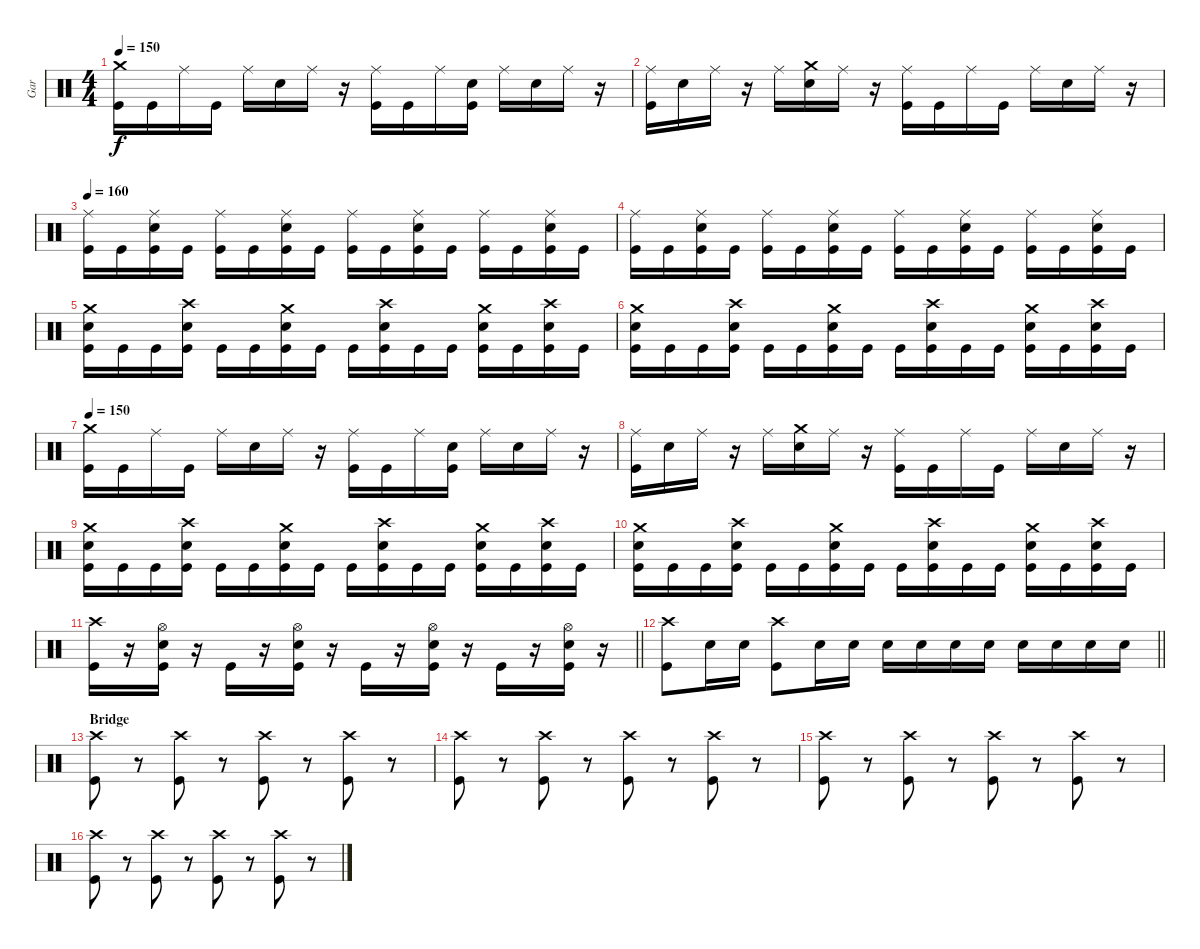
\track ("Gar" "Gar") {instrument percussion}
\staff {score}
\articulation defaults
\ts (4 4)
\tempo 150
\clef neutral
\ks c
("Crash medium (hit)" "Kick (hit)").16{dy f} "Kick (hit)".16 "Ride (middle)".16 "Kick (hit)".16 "Ride (middle)".16 "Snare (hit) 2".16 "Ride (middle)".16 r.16 ("Ride (middle)" "Kick (hit)").16 "Kick (hit)".16 "Ride (middle)".16 ("Snare (hit) 2" "Kick (hit)").16 "Ride (middle)".16 "Snare (hit) 2".16 "Ride (middle)".16 r.16 |
("Ride (middle)" "Kick (hit)").16 "Snare (hit) 2".16 "Ride (middle)".16 r.16 "Ride (middle)".16 ("Crash medium (hit)" "Snare (hit) 2").16 "Ride (middle)".16 r.16 ("Ride (middle)" "Kick (hit)").16 "Kick (hit)".16 "Ride (middle)".16 "Kick (hit)".16 "Ride (middle)".16 "Snare (hit) 2".16 "Ride (middle)".16 r.16 |
\tempo 160
("Ride (middle)" "Kick (hit)").16 "Kick (hit)".16 ("Ride (middle)" "Snare (hit) 2" "Kick (hit)").16 "Kick (hit)".16 ("Ride (middle)" "Kick (hit)").16 "Kick (hit)".16 ("Ride (middle)" "Snare (hit) 2" "Kick (hit)").16 "Kick (hit)".16 ("Ride (middle)" "Kick (hit)").16 "Kick (hit)".16 ("Ride (middle)" "Snare (hit) 2" "Kick (hit)").16 "Kick (hit)".16 ("Ride (middle)" "Kick (hit)").16 "Kick (hit)".16 ("Ride (middle)" "Snare (hit) 2" "Kick (hit)").16 "Kick (hit)".16 |
("Ride (middle)" "Kick (hit)").16 "Kick (hit)".16 ("Ride (middle)" "Snare (hit) 2" "Kick (hit)").16 "Kick (hit)".16 ("Ride (middle)" "Kick (hit)").16 "Kick (hit)".16 ("Ride (middle)" "Snare (hit) 2" "Kick (hit)").16 "Kick (hit)".16 ("Ride (middle)" "Kick (hit)").16 "Kick (hit)".16 ("Ride (middle)" "Snare (hit) 2" "Kick (hit)").16 "Kick (hit)".16 ("Ride (middle)" "Kick (hit)").16 "Kick (hit)".16 ("Ride (middle)" "Snare (hit) 2" "Kick (hit)").16 "Kick (hit)".16 |
("Crash medium (hit)" "Snare (hit) 2" "Kick (hit)").16 "Kick (hit)".16 "Kick (hit)".16 ("Crash high (hit)" "Snare (hit) 2" "Kick (hit)").16 "Kick (hit)".16 "Kick (hit)".16 ("Crash medium (hit)" "Snare (hit) 2" "Kick (hit)").16 "Kick (hit)".16 "Kick (hit)".16 ("Crash high (hit)" "Snare (hit) 2" "Kick (hit)").16 "Kick (hit)".16 "Kick (hit)".16 ("Crash medium (hit)" "Snare (hit) 2" "Kick (hit)").16 "Kick (hit)".16 ("Crash high (hit)" "Snare (hit) 2" "Kick (hit)").16 "Kick (hit)".16 |
("Crash medium (hit)" "Snare (hit) 2" "Kick (hit)").16 "Kick (hit)".16 "Kick (hit)".16 ("Crash high (hit)" "Snare (hit) 2" "Kick (hit)").16 "Kick (hit)".16 "Kick (hit)".16 ("Crash medium (hit)" "Snare (hit) 2" "Kick (hit)").16 "Kick (hit)".16 "Kick (hit)".16 ("Crash high (hit)" "Snare (hit) 2" "Kick (hit)").16 "Kick (hit)".16 "Kick (hit)".16 ("Crash medium (hit)" "Snare (hit) 2" "Kick (hit)").16 "Kick (hit)".16 ("Crash high (hit)" "Snare (hit) 2" "Kick (hit)").16 "Kick (hit)".16 |
\tempo 150
("Crash medium (hit)" "Kick (hit)").16 "Kick (hit)".16 "Ride (middle)".16 "Kick (hit)".16 "Ride (middle)".16 "Snare (hit) 2".16 "Ride (middle)".16 r.16 ("Ride (middle)" "Kick (hit)").16 "Kick (hit)".16 "Ride (middle)".16 ("Snare (hit) 2" "Kick (hit)").16 "Ride (middle)".16 "Snare (hit) 2".16 "Ride (middle)".16 r.16 |
("Ride (middle)" "Kick (hit)").16 "Snare (hit) 2".16 "Ride (middle)".16 r.16 "Ride (middle)".16 ("Crash medium (hit)" "Snare (hit) 2").16 "Ride (middle)".16 r.16 ("Ride (middle)" "Kick (hit)").16 "Kick (hit)".16 "Ride (middle)".16 "Kick (hit)".16 "Ride (middle)".16 "Snare (hit) 2".16 "Ride (middle)".16 r.16 |
("Crash medium (hit)" "Snare (hit) 2" "Kick (hit)").16 "Kick (hit)".16 "Kick (hit)".16 ("Crash high (hit)" "Snare (hit) 2" "Kick (hit)").16 "Kick (hit)".16 "Kick (hit)".16 ("Crash medium (hit)" "Snare (hit) 2" "Kick (hit)").16 "Kick (hit)".16 "Kick (hit)".16 ("Crash high (hit)" "Snare (hit) 2" "Kick (hit)").16 "Kick (hit)".16 "Kick (hit)".16 ("Crash medium (hit)" "Snare (hit) 2" "Kick (hit)").16 "Kick (hit)".16 ("Crash high (hit)" "Snare (hit) 2" "Kick (hit)").16 "Kick (hit)".16 |
("Crash medium (hit)" "Snare (hit) 2" "Kick (hit)").16 "Kick (hit)".16 "Kick (hit)".16 ("Crash high (hit)" "Snare (hit) 2" "Kick (hit)").16 "Kick (hit)".16 "Kick (hit)".16 ("Crash medium (hit)" "Snare (hit) 2" "Kick (hit)").16 "Kick (hit)".16 "Kick (hit)".16 ("Crash high (hit)" "Snare (hit) 2" "Kick (hit)").16 "Kick (hit)".16 "Kick (hit)".16 ("Crash medium (hit)" "Snare (hit) 2" "Kick (hit)").16 "Kick (hit)".16 ("Crash high (hit)" "Snare (hit) 2" "Kick (hit)").16 "Kick (hit)".16 |
\barLineRight lightlight
("Crash high (hit)" "Kick (hit)").16 r.16 ("Hi-Hat (open)" "Snare (hit) 2" "Kick (hit)").16 r.16 "Kick (hit)".16 r.16 ("Hi-Hat (open)" "Snare (hit) 2" "Kick (hit)").16 r.16 "Kick (hit)".16 r.16 ("Hi-Hat (open)" "Snare (hit) 2" "Kick (hit)").16 r.16 "Kick (hit)".16 r.16 ("Hi-Hat (open)" "Snare (hit) 2" "Kick (hit)").16 r.16 |
\barLineRight lightlight
("Crash high (hit)" "Kick (hit)").8 "Snare (hit) 2".16 "Snare (hit) 2".16 ("Crash high (hit)" "Kick (hit)").8 "Snare (hit) 2".16 "Snare (hit) 2".16 "Snare (hit) 2".16 "Snare (hit) 2".16 "Snare (hit) 2".16 "Snare (hit) 2".16 "Snare (hit) 2".16 "Snare (hit) 2".16 "Snare (hit) 2".16 "Snare (hit) 2".16 |
\section ("" "Bridge")
("Crash high (hit)" "Kick (hit)").8 r.8 ("Crash high (hit)" "Kick (hit)").8 r.8 ("Crash high (hit)" "Kick (hit)").8 r.8 ("Crash high (hit)" "Kick (hit)").8 r.8 |
("Crash high (hit)" "Kick (hit)").8 r.8 ("Crash high (hit)" "Kick (hit)").8 r.8 ("Crash high (hit)" "Kick (hit)").8 r.8 ("Crash high (hit)" "Kick (hit)").8 r.8 |
("Crash high (hit)" "Kick (hit)").8 r.8 ("Crash high (hit)" "Kick (hit)").8 r.8 ("Crash high (hit)" "Kick (hit)").8 r.8 ("Crash high (hit)" "Kick (hit)").8 r.8 |
("Crash high (hit)" "Kick (hit)").8 r.8 ("Crash high (hit)" "Kick (hit)").8 r.8 ("Crash high (hit)" "Kick (hit)").8 r.8 ("Crash high (hit)" "Kick (hit)").8 r.8
